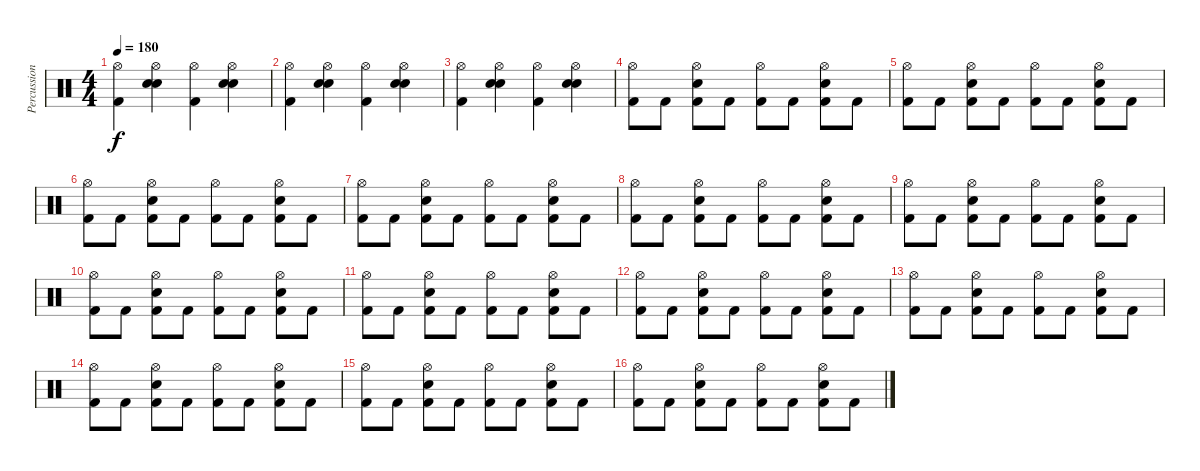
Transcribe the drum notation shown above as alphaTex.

\track ("Percussion" "Percussion") {instrument percussion}
\staff {score}
\articulation defaults
\ts (4 4)
\tempo 180
\clef neutral
\ks c
("Hi-Hat (open)" "Kick (hit) 2").4{dy f} ("Hi-Hat (open)" "Snare (hit) 2" "Snare (hit) 2").4 ("Hi-Hat (open)" "Kick (hit) 2").4 ("Hi-Hat (open)" "Snare (hit) 2" "Snare (hit) 2").4 |
("Hi-Hat (open)" "Kick (hit) 2").4 ("Hi-Hat (open)" "Snare (hit) 2" "Snare (hit) 2").4 ("Hi-Hat (open)" "Kick (hit) 2").4 ("Hi-Hat (open)" "Snare (hit) 2" "Snare (hit) 2").4 |
("Hi-Hat (open)" "Kick (hit) 2").4 ("Hi-Hat (open)" "Snare (hit) 2" "Snare (hit) 2").4 ("Hi-Hat (open)" "Kick (hit) 2").4 ("Hi-Hat (open)" "Snare (hit) 2" "Snare (hit) 2").4 |
("Hi-Hat (open)" "Kick (hit) 2").8 "Kick (hit) 2".8 ("Hi-Hat (open)" "Snare (hit) 2" "Kick (hit) 2").8 "Kick (hit) 2".8 ("Hi-Hat (open)" "Kick (hit) 2").8 "Kick (hit) 2".8 ("Hi-Hat (open)" "Snare (hit) 2" "Kick (hit) 2").8 "Kick (hit) 2".8 |
("Hi-Hat (open)" "Kick (hit) 2").8 "Kick (hit) 2".8 ("Hi-Hat (open)" "Snare (hit) 2" "Kick (hit) 2").8 "Kick (hit) 2".8 ("Hi-Hat (open)" "Kick (hit) 2").8 "Kick (hit) 2".8 ("Hi-Hat (open)" "Snare (hit) 2" "Kick (hit) 2").8 "Kick (hit) 2".8 |
("Hi-Hat (open)" "Kick (hit) 2").8 "Kick (hit) 2".8 ("Hi-Hat (open)" "Snare (hit) 2" "Kick (hit) 2").8 "Kick (hit) 2".8 ("Hi-Hat (open)" "Kick (hit) 2").8 "Kick (hit) 2".8 ("Hi-Hat (open)" "Snare (hit) 2" "Kick (hit) 2").8 "Kick (hit) 2".8 |
("Hi-Hat (open)" "Kick (hit) 2").8 "Kick (hit) 2".8 ("Hi-Hat (open)" "Snare (hit) 2" "Kick (hit) 2").8 "Kick (hit) 2".8 ("Hi-Hat (open)" "Kick (hit) 2").8 "Kick (hit) 2".8 ("Hi-Hat (open)" "Snare (hit) 2" "Kick (hit) 2").8 "Kick (hit) 2".8 |
("Hi-Hat (open)" "Kick (hit) 2").8 "Kick (hit) 2".8 ("Hi-Hat (open)" "Snare (hit) 2" "Kick (hit) 2").8 "Kick (hit) 2".8 ("Hi-Hat (open)" "Kick (hit) 2").8 "Kick (hit) 2".8 ("Hi-Hat (open)" "Snare (hit) 2" "Kick (hit) 2").8 "Kick (hit) 2".8 |
("Hi-Hat (open)" "Kick (hit) 2").8 "Kick (hit) 2".8 ("Hi-Hat (open)" "Snare (hit) 2" "Kick (hit) 2").8 "Kick (hit) 2".8 ("Hi-Hat (open)" "Kick (hit) 2").8 "Kick (hit) 2".8 ("Hi-Hat (open)" "Snare (hit) 2" "Kick (hit) 2").8 "Kick (hit) 2".8 |
("Hi-Hat (open)" "Kick (hit) 2").8 "Kick (hit) 2".8 ("Hi-Hat (open)" "Snare (hit) 2" "Kick (hit) 2").8 "Kick (hit) 2".8 ("Hi-Hat (open)" "Kick (hit) 2").8 "Kick (hit) 2".8 ("Hi-Hat (open)" "Snare (hit) 2" "Kick (hit) 2").8 "Kick (hit) 2".8 |
("Hi-Hat (open)" "Kick (hit) 2").8 "Kick (hit) 2".8 ("Hi-Hat (open)" "Snare (hit) 2" "Kick (hit) 2").8 "Kick (hit) 2".8 ("Hi-Hat (open)" "Kick (hit) 2").8 "Kick (hit) 2".8 ("Hi-Hat (open)" "Snare (hit) 2" "Kick (hit) 2").8 "Kick (hit) 2".8 |
("Hi-Hat (open)" "Kick (hit) 2").8 "Kick (hit) 2".8 ("Hi-Hat (open)" "Snare (hit) 2" "Kick (hit) 2").8 "Kick (hit) 2".8 ("Hi-Hat (open)" "Kick (hit) 2").8 "Kick (hit) 2".8 ("Hi-Hat (open)" "Snare (hit) 2" "Kick (hit) 2").8 "Kick (hit) 2".8 |
("Hi-Hat (open)" "Kick (hit) 2").8 "Kick (hit) 2".8 ("Hi-Hat (open)" "Snare (hit) 2" "Kick (hit) 2").8 "Kick (hit) 2".8 ("Hi-Hat (open)" "Kick (hit) 2").8 "Kick (hit) 2".8 ("Hi-Hat (open)" "Snare (hit) 2" "Kick (hit) 2").8 "Kick (hit) 2".8 |
("Hi-Hat (open)" "Kick (hit) 2").8 "Kick (hit) 2".8 ("Hi-Hat (open)" "Snare (hit) 2" "Kick (hit) 2").8 "Kick (hit) 2".8 ("Hi-Hat (open)" "Kick (hit) 2").8 "Kick (hit) 2".8 ("Hi-Hat (open)" "Snare (hit) 2" "Kick (hit) 2").8 "Kick (hit) 2".8 |
("Hi-Hat (open)" "Kick (hit) 2").8 "Kick (hit) 2".8 ("Hi-Hat (open)" "Snare (hit) 2" "Kick (hit) 2").8 "Kick (hit) 2".8 ("Hi-Hat (open)" "Kick (hit) 2").8 "Kick (hit) 2".8 ("Hi-Hat (open)" "Snare (hit) 2" "Kick (hit) 2").8 "Kick (hit) 2".8 |
("Hi-Hat (open)" "Kick (hit) 2").8 "Kick (hit) 2".8 ("Hi-Hat (open)" "Snare (hit) 2" "Kick (hit) 2").8 "Kick (hit) 2".8 ("Hi-Hat (open)" "Kick (hit) 2").8 "Kick (hit) 2".8 ("Hi-Hat (open)" "Snare (hit) 2" "Kick (hit) 2").8 "Kick (hit) 2".8
